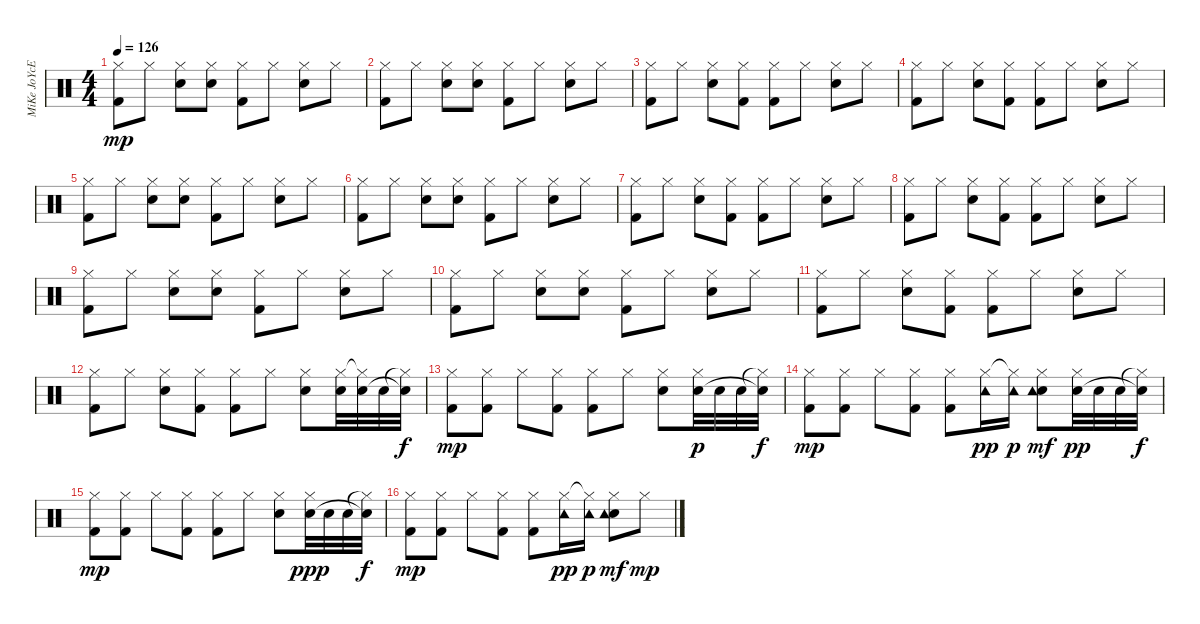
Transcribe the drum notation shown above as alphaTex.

\track ("MiKe JoYcE" "MiKe JoYcE") {instrument percussion}
\staff {score}
\articulation defaults
\ts (4 4)
\tempo 126
\clef neutral
\ks c
("Hi-Hat (closed)" "Kick (hit) 2").8{dy mp} "Hi-Hat (closed)".8 ("Hi-Hat (closed)" "Electric Snare (hit)").8 ("Hi-Hat (closed)" "Electric Snare (hit)").8 ("Hi-Hat (closed)" "Kick (hit) 2").8 "Hi-Hat (closed)".8 ("Hi-Hat (closed)" "Electric Snare (hit)").8 "Hi-Hat (closed)".8 |
("Hi-Hat (closed)" "Kick (hit) 2").8 "Hi-Hat (closed)".8 ("Hi-Hat (closed)" "Electric Snare (hit)").8 ("Hi-Hat (closed)" "Electric Snare (hit)").8 ("Hi-Hat (closed)" "Kick (hit) 2").8 "Hi-Hat (closed)".8 ("Hi-Hat (closed)" "Electric Snare (hit)").8 "Hi-Hat (closed)".8 |
("Hi-Hat (closed)" "Kick (hit) 2").8 "Hi-Hat (closed)".8 ("Hi-Hat (closed)" "Electric Snare (hit)").8 ("Hi-Hat (closed)" "Kick (hit) 2").8 ("Hi-Hat (closed)" "Kick (hit) 2").8 "Hi-Hat (closed)".8 ("Hi-Hat (closed)" "Electric Snare (hit)").8 "Hi-Hat (closed)".8 |
("Hi-Hat (closed)" "Kick (hit) 2").8 "Hi-Hat (closed)".8 ("Hi-Hat (closed)" "Electric Snare (hit)").8 ("Hi-Hat (closed)" "Kick (hit) 2").8 ("Hi-Hat (closed)" "Kick (hit) 2").8 "Hi-Hat (closed)".8 ("Hi-Hat (closed)" "Electric Snare (hit)").8 "Hi-Hat (closed)".8 |
("Hi-Hat (closed)" "Kick (hit) 2").8 "Hi-Hat (closed)".8 ("Hi-Hat (closed)" "Electric Snare (hit)").8 ("Hi-Hat (closed)" "Electric Snare (hit)").8 ("Hi-Hat (closed)" "Kick (hit) 2").8 "Hi-Hat (closed)".8 ("Hi-Hat (closed)" "Electric Snare (hit)").8 "Hi-Hat (closed)".8 |
("Hi-Hat (closed)" "Kick (hit) 2").8 "Hi-Hat (closed)".8 ("Hi-Hat (closed)" "Electric Snare (hit)").8 ("Hi-Hat (closed)" "Electric Snare (hit)").8 ("Hi-Hat (closed)" "Kick (hit) 2").8 "Hi-Hat (closed)".8 ("Hi-Hat (closed)" "Electric Snare (hit)").8 "Hi-Hat (closed)".8 |
("Hi-Hat (closed)" "Kick (hit) 2").8 "Hi-Hat (closed)".8 ("Hi-Hat (closed)" "Electric Snare (hit)").8 ("Hi-Hat (closed)" "Kick (hit) 2").8 ("Hi-Hat (closed)" "Kick (hit) 2").8 "Hi-Hat (closed)".8 ("Hi-Hat (closed)" "Electric Snare (hit)").8 "Hi-Hat (closed)".8 |
("Hi-Hat (closed)" "Kick (hit) 2").8 "Hi-Hat (closed)".8 ("Hi-Hat (closed)" "Electric Snare (hit)").8 ("Hi-Hat (closed)" "Kick (hit) 2").8 ("Hi-Hat (closed)" "Kick (hit) 2").8 "Hi-Hat (closed)".8 ("Hi-Hat (closed)" "Electric Snare (hit)").8 "Hi-Hat (closed)".8 |
("Hi-Hat (closed)" "Kick (hit) 2").8 "Hi-Hat (closed)".8 ("Hi-Hat (closed)" "Electric Snare (hit)").8 ("Hi-Hat (closed)" "Electric Snare (hit)").8 ("Hi-Hat (closed)" "Kick (hit) 2").8 "Hi-Hat (closed)".8 ("Hi-Hat (closed)" "Electric Snare (hit)").8 "Hi-Hat (closed)".8 |
("Hi-Hat (closed)" "Kick (hit) 2").8 "Hi-Hat (closed)".8 ("Hi-Hat (closed)" "Electric Snare (hit)").8 ("Hi-Hat (closed)" "Electric Snare (hit)").8 ("Hi-Hat (closed)" "Kick (hit) 2").8 "Hi-Hat (closed)".8 ("Hi-Hat (closed)" "Electric Snare (hit)").8 "Hi-Hat (closed)".8 |
("Hi-Hat (closed)" "Kick (hit) 2").8 "Hi-Hat (closed)".8 ("Hi-Hat (closed)" "Electric Snare (hit)").8 ("Hi-Hat (closed)" "Kick (hit) 2").8 ("Hi-Hat (closed)" "Kick (hit) 2").8 "Hi-Hat (closed)".8 ("Hi-Hat (closed)" "Electric Snare (hit)").8 "Hi-Hat (closed)".8 |
("Hi-Hat (closed)" "Kick (hit) 2").8 "Hi-Hat (closed)".8 ("Hi-Hat (closed)" "Electric Snare (hit)").8 ("Hi-Hat (closed)" "Kick (hit) 2").8 ("Hi-Hat (closed)" "Kick (hit) 2").8 "Hi-Hat (closed)".8 ("Hi-Hat (closed)" "Electric Snare (hit)").8 ("Hi-Hat (closed)" "Electric Snare (hit)").32 ("Hi-Hat (closed)"{t} "Electric Snare (hit)").32 "Electric Snare (hit)".32 ("Hi-Hat (closed)"{t} "Electric Snare (hit)"{t}).32{dy f} |
("Hi-Hat (closed)" "Kick (hit) 2").8{dy mp} ("Hi-Hat (closed)" "Kick (hit) 2").8 "Hi-Hat (closed)".8 ("Hi-Hat (closed)" "Kick (hit) 2").8 ("Hi-Hat (closed)" "Kick (hit) 2").8 "Hi-Hat (closed)".8 ("Hi-Hat (closed)" "Electric Snare (hit)").8 ("Hi-Hat (closed)" "Electric Snare (hit)").32{dy p} "Electric Snare (hit)".32 "Electric Snare (hit)".32 ("Hi-Hat (closed)"{t} "Electric Snare (hit)"{t}).32{dy f} |
("Hi-Hat (closed)" "Kick (hit) 2").8{dy mp} ("Hi-Hat (closed)" "Kick (hit) 2").8 "Hi-Hat (closed)".8 ("Hi-Hat (closed)" "Kick (hit) 2").8 ("Hi-Hat (closed)" "Kick (hit) 2").8 ("Hi-Hat (closed)" "Tambourine (hit)").16{dy pp} ("Hi-Hat (closed)"{t} "Tambourine (hit)").16{dy p} ("Hi-Hat (closed)" "Electric Snare (hit)" "Tambourine (hit)").8{dy mf} ("Hi-Hat (closed)" "Electric Snare (hit)").32{dy pp} "Electric Snare (hit)".32 "Electric Snare (hit)".32 ("Hi-Hat (closed)"{t} "Electric Snare (hit)"{t}).32{dy f} |
("Hi-Hat (closed)" "Kick (hit) 2").8{dy mp} ("Hi-Hat (closed)" "Kick (hit) 2").8 "Hi-Hat (closed)".8 ("Hi-Hat (closed)" "Kick (hit) 2").8 ("Hi-Hat (closed)" "Kick (hit) 2").8 "Hi-Hat (closed)".8 ("Hi-Hat (closed)" "Electric Snare (hit)").8 ("Hi-Hat (closed)" "Electric Snare (hit)").32{dy ppp} "Electric Snare (hit)".32 "Electric Snare (hit)".32 ("Hi-Hat (closed)"{t} "Electric Snare (hit)"{t}).32{dy f} |
("Hi-Hat (closed)" "Kick (hit) 2").8{dy mp} ("Hi-Hat (closed)" "Kick (hit) 2").8 "Hi-Hat (closed)".8 ("Hi-Hat (closed)" "Kick (hit) 2").8 ("Hi-Hat (closed)" "Kick (hit) 2").8 ("Hi-Hat (closed)" "Tambourine (hit)").16{dy pp} ("Hi-Hat (closed)"{t} "Tambourine (hit)").16{dy p} ("Hi-Hat (closed)" "Electric Snare (hit)" "Tambourine (hit)").8{dy mf} "Hi-Hat (closed)".8{dy mp}
